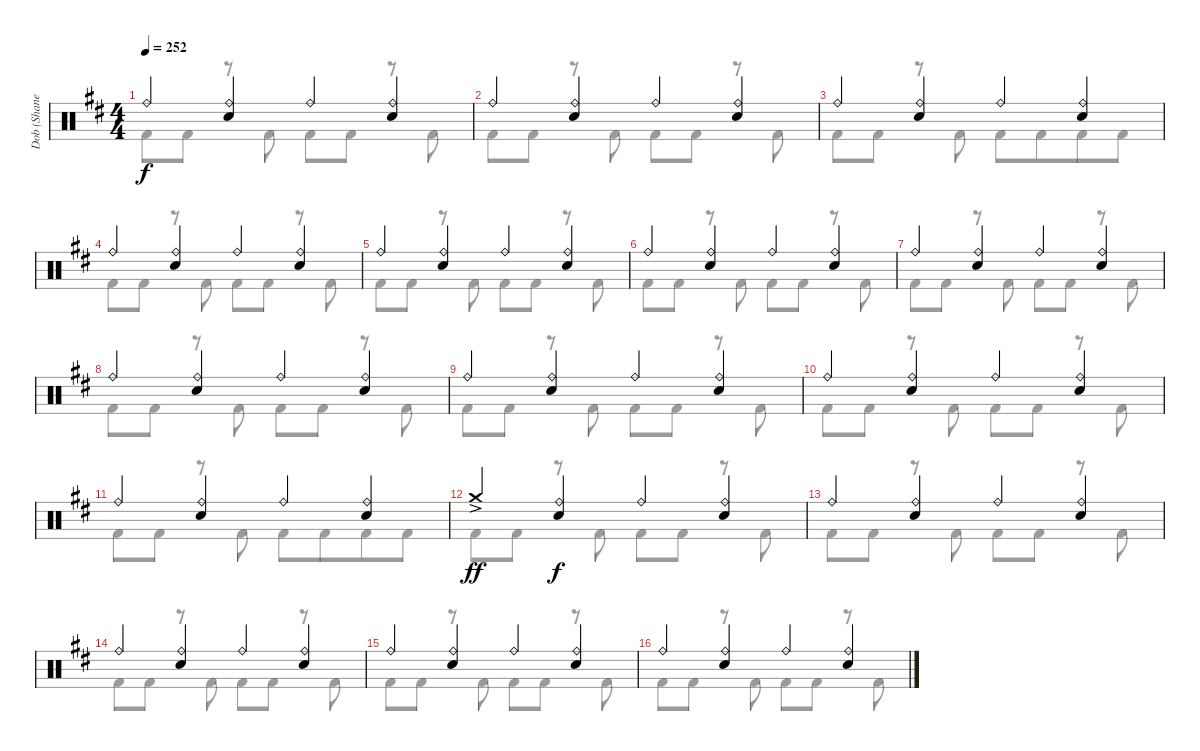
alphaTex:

\track ("Dob (Shane Gaalaas)" "Dob (Shane") {instrument percussion}
\staff {score}
\articulation defaults
\voice
\ts (4 4)
\tempo 252
\clef neutral
\ks d "Ride (bell)".4{dy f}
("Ride (bell)" "Electric Snare (hit)").4 "Ride (bell)".4 ("Ride (bell)" "Electric Snare (hit)").4 |
"Ride (bell)".4 ("Ride (bell)" "Electric Snare (hit)").4 "Ride (bell)".4 ("Ride (bell)" "Electric Snare (hit)").4 |
"Ride (bell)".4 ("Ride (bell)" "Electric Snare (hit)").4 "Ride (bell)".4 ("Ride (bell)" "Electric Snare (hit)").4 |
"Ride (bell)".4 ("Ride (bell)" "Electric Snare (hit)").4 "Ride (bell)".4 ("Ride (bell)" "Electric Snare (hit)").4 |
"Ride (bell)".4 ("Ride (bell)" "Electric Snare (hit)").4 "Ride (bell)".4 ("Ride (bell)" "Electric Snare (hit)").4 |
"Ride (bell)".4 ("Ride (bell)" "Electric Snare (hit)").4 "Ride (bell)".4 ("Ride (bell)" "Electric Snare (hit)").4 |
"Ride (bell)".4 ("Ride (bell)" "Electric Snare (hit)").4 "Ride (bell)".4 ("Ride (bell)" "Electric Snare (hit)").4 |
"Ride (bell)".4 ("Ride (bell)" "Electric Snare (hit)").4 "Ride (bell)".4 ("Ride (bell)" "Electric Snare (hit)").4 |
"Ride (bell)".4 ("Ride (bell)" "Electric Snare (hit)").4 "Ride (bell)".4 ("Ride (bell)" "Electric Snare (hit)").4 |
"Ride (bell)".4 ("Ride (bell)" "Electric Snare (hit)").4 "Ride (bell)".4 ("Ride (bell)" "Electric Snare (hit)").4 |
"Ride (bell)".4 ("Ride (bell)" "Electric Snare (hit)").4 "Ride (bell)".4 ("Ride (bell)" "Electric Snare (hit)").4 |
"Crash medium (hit)"{ac}.4{dy ff} ("Ride (bell)" "Electric Snare (hit)").4{dy f} "Ride (bell)".4 ("Ride (bell)" "Electric Snare (hit)").4 |
"Ride (bell)".4 ("Ride (bell)" "Electric Snare (hit)").4 "Ride (bell)".4 ("Ride (bell)" "Electric Snare (hit)").4 |
"Ride (bell)".4 ("Ride (bell)" "Electric Snare (hit)").4 "Ride (bell)".4 ("Ride (bell)" "Electric Snare (hit)").4 |
"Ride (bell)".4 ("Ride (bell)" "Electric Snare (hit)").4 "Ride (bell)".4 ("Ride (bell)" "Electric Snare (hit)").4 |
"Ride (bell)".4 ("Ride (bell)" "Electric Snare (hit)").4 "Ride (bell)".4 ("Ride (bell)" "Electric Snare (hit)").4
\voice
\clef neutral
\ottava regular
\simile none
\ks d "Kick (hit) 2".8{dy f} "Kick (hit) 2".8
r.8 "Kick (hit) 2".8 "Kick (hit) 2".8 "Kick (hit) 2".8 r.8 "Kick (hit) 2".8 |
"Kick (hit) 2".8 "Kick (hit) 2".8 r.8 "Kick (hit) 2".8 "Kick (hit) 2".8 "Kick (hit) 2".8 r.8 "Kick (hit) 2".8 |
"Kick (hit) 2".8 "Kick (hit) 2".8 r.8 "Kick (hit) 2".8 "Kick (hit) 2".8 "Kick (hit) 2".8{beam merge} "Kick (hit) 2".8 "Kick (hit) 2".8 |
"Kick (hit) 2".8 "Kick (hit) 2".8 r.8 "Kick (hit) 2".8 "Kick (hit) 2".8 "Kick (hit) 2".8 r.8 "Kick (hit) 2".8 |
"Kick (hit) 2".8 "Kick (hit) 2".8 r.8 "Kick (hit) 2".8 "Kick (hit) 2".8 "Kick (hit) 2".8 r.8 "Kick (hit) 2".8 |
"Kick (hit) 2".8 "Kick (hit) 2".8 r.8 "Kick (hit) 2".8 "Kick (hit) 2".8 "Kick (hit) 2".8 r.8 "Kick (hit) 2".8 |
"Kick (hit) 2".8 "Kick (hit) 2".8 r.8 "Kick (hit) 2".8 "Kick (hit) 2".8 "Kick (hit) 2".8 r.8 "Kick (hit) 2".8 |
"Kick (hit) 2".8 "Kick (hit) 2".8 r.8 "Kick (hit) 2".8 "Kick (hit) 2".8 "Kick (hit) 2".8 r.8 "Kick (hit) 2".8 |
"Kick (hit) 2".8 "Kick (hit) 2".8 r.8 "Kick (hit) 2".8 "Kick (hit) 2".8 "Kick (hit) 2".8 r.8 "Kick (hit) 2".8 |
"Kick (hit) 2".8 "Kick (hit) 2".8 r.8 "Kick (hit) 2".8 "Kick (hit) 2".8 "Kick (hit) 2".8 r.8 "Kick (hit) 2".8 |
"Kick (hit) 2".8 "Kick (hit) 2".8 r.8 "Kick (hit) 2".8 "Kick (hit) 2".8 "Kick (hit) 2".8{beam merge} "Kick (hit) 2".8 "Kick (hit) 2".8 |
"Kick (hit) 2".8 "Kick (hit) 2".8 r.8 "Kick (hit) 2".8 "Kick (hit) 2".8 "Kick (hit) 2".8 r.8 "Kick (hit) 2".8 |
"Kick (hit) 2".8 "Kick (hit) 2".8 r.8 "Kick (hit) 2".8 "Kick (hit) 2".8 "Kick (hit) 2".8 r.8 "Kick (hit) 2".8 |
"Kick (hit) 2".8 "Kick (hit) 2".8 r.8 "Kick (hit) 2".8 "Kick (hit) 2".8 "Kick (hit) 2".8 r.8 "Kick (hit) 2".8 |
"Kick (hit) 2".8 "Kick (hit) 2".8 r.8 "Kick (hit) 2".8 "Kick (hit) 2".8 "Kick (hit) 2".8 r.8 "Kick (hit) 2".8 |
"Kick (hit) 2".8 "Kick (hit) 2".8 r.8 "Kick (hit) 2".8 "Kick (hit) 2".8 "Kick (hit) 2".8 r.8 "Kick (hit) 2".8
